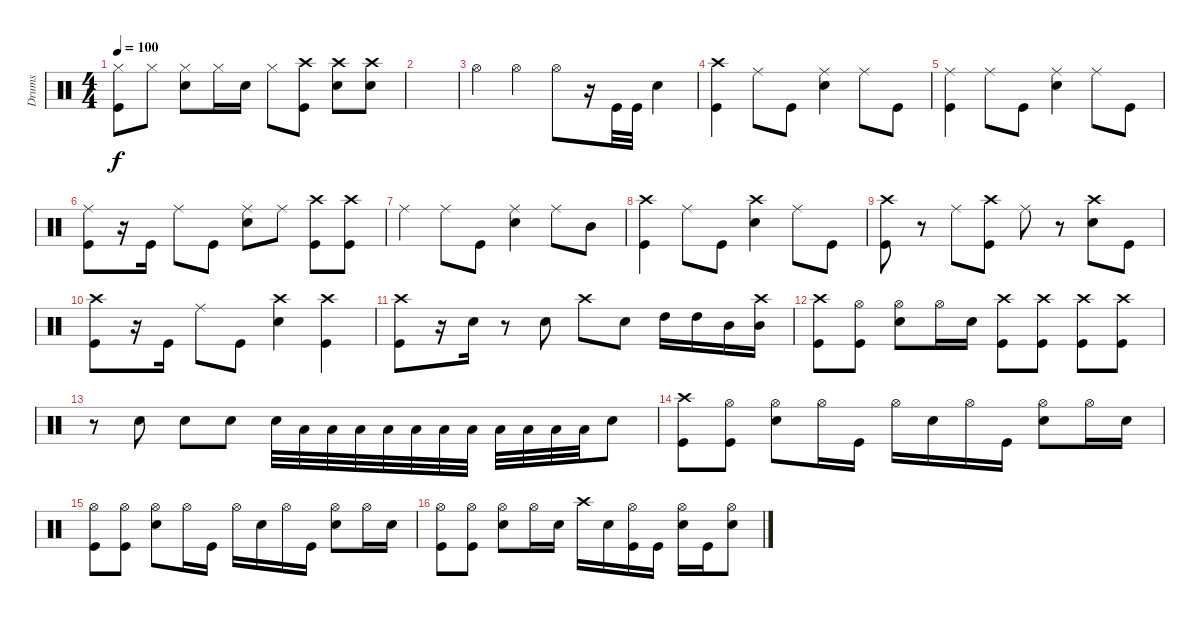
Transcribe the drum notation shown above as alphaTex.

\track ("Drums" "Drums") {instrument percussion}
\staff {score}
\articulation defaults
\ts (4 4)
\tempo 100
\clef neutral
\ks c
("Hi-Hat (closed)" "Kick (hit)").8{dy f} "Hi-Hat (closed)".8 ("Hi-Hat (closed)" "Snare (hit) 2").8 "Hi-Hat (closed)".16 "Snare (hit) 2".16 "Hi-Hat (closed)".8 ("Crash high (hit)" "Kick (hit)").8 ("Crash high (hit)" "Snare (hit) 2").8 ("Crash high (hit)" "Snare (hit) 2").8 |
|
"Hi-Hat (open)".4 "Hi-Hat (open)".4 "Hi-Hat (open)".8 r.16 "Kick (hit)".32 "Kick (hit)".32 "Snare (hit) 2".4 |
("Crash high (hit)" "Kick (hit)").4 "Ride (middle)".8 "Kick (hit)".8 ("Ride (middle)" "Snare (hit) 2").4 "Ride (middle)".8 "Kick (hit)".8 |
("Ride (middle)" "Kick (hit)").4 "Ride (middle)".8 "Kick (hit)".8 ("Ride (middle)" "Snare (hit) 2").4 "Ride (middle)".8 "Kick (hit)".8 |
("Ride (middle)" "Kick (hit)").8 r.16 "Kick (hit)".16 "Ride (middle)".8 "Kick (hit)".8 ("Ride (middle)" "Snare (hit) 2").8 "Ride (middle)".8 ("Crash high (hit)" "Kick (hit)").8 ("Crash high (hit)" "Kick (hit)").8 |
"Ride (middle)".4 "Ride (middle)".8 "Kick (hit)".8 ("Ride (middle)" "Snare (hit) 2").4 "Ride (middle)".8 "Mid Tom (hit)".8 |
("Crash high (hit)" "Kick (hit)").4 "Ride (middle)".8 "Kick (hit)".8 ("Crash high (hit)" "Snare (hit) 2").4 "Ride (middle)".8 "Kick (hit)".8 |
("Crash high (hit)" "Kick (hit)").8 r.8 "Ride (middle)".8 ("Crash high (hit)" "Kick (hit)").8 "Ride (middle)".8 r.8 ("Crash high (hit)" "Snare (hit) 2").8 "Kick (hit)".8 |
("Crash high (hit)" "Kick (hit)").8 r.16 "Kick (hit)".16 "Ride (middle)".8 "Kick (hit)".8 ("Crash high (hit)" "Snare (hit) 2").4 ("Crash high (hit)" "Kick (hit)").4 |
("Crash high (hit)" "Kick (hit)").8 r.16 "Snare (hit) 2".16 r.8 "Snare (hit) 2".8 "Crash high (hit)".8 "Snare (hit) 2".8 "High Tom (hit)".16 "High Tom (hit)".16 "Mid Tom (hit)".16 ("Crash high (hit)" "Mid Tom (hit)").16 |
("Crash high (hit)" "Kick (hit)").8 ("Hi-Hat (open)" "Kick (hit)").8 ("Hi-Hat (open)" "Snare (hit) 2").8 "Hi-Hat (open)".16 "Snare (hit) 2".16 ("Crash high (hit)" "Kick (hit)").8 ("Crash high (hit)" "Kick (hit)").8 ("Crash high (hit)" "Kick (hit)").8 ("Crash high (hit)" "Kick (hit)").8 |
r.8 "Snare (hit) 2".8 "Snare (hit) 2".8 "Snare (hit) 2".8 "Snare (hit) 2".32 "Low Floor Tom (hit)".32 "Low Floor Tom (hit)".32 "Low Floor Tom (hit)".32 "Low Floor Tom (hit)".32 "Low Floor Tom (hit)".32 "Low Floor Tom (hit)".32 "Low Floor Tom (hit)".32 "Low Floor Tom (hit)".32 "Low Floor Tom (hit)".32 "Low Floor Tom (hit)".32 "Low Floor Tom (hit)".32 "Snare (hit) 2".8 |
("Crash high (hit)" "Kick (hit)").8 ("Hi-Hat (open)" "Kick (hit)").8 ("Hi-Hat (open)" "Snare (hit) 2").8 "Hi-Hat (open)".16 "Kick (hit)".16 "Hi-Hat (open)".16 "Snare (hit) 2".16 "Hi-Hat (open)".16 "Kick (hit)".16 ("Hi-Hat (open)" "Snare (hit) 2").8 "Hi-Hat (open)".16 "Snare (hit) 2".16 |
("Hi-Hat (open)" "Kick (hit)").8 ("Hi-Hat (open)" "Kick (hit)").8 ("Hi-Hat (open)" "Snare (hit) 2").8 "Hi-Hat (open)".16 "Kick (hit)".16 "Hi-Hat (open)".16 "Snare (hit) 2".16 "Hi-Hat (open)".16 "Kick (hit)".16 ("Hi-Hat (open)" "Snare (hit) 2").8 "Hi-Hat (open)".16 "Snare (hit) 2".16 |
("Hi-Hat (open)" "Kick (hit)").8 ("Hi-Hat (open)" "Kick (hit)").8 ("Hi-Hat (open)" "Snare (hit) 2").8 "Hi-Hat (open)".16 "Snare (hit) 2".16 "Crash high (hit)".16 "Snare (hit) 2".16 ("Hi-Hat (open)" "Kick (hit)").16 "Kick (hit)".16 ("Hi-Hat (open)" "Snare (hit) 2").16 "Kick (hit)".16 ("Hi-Hat (open)" "Snare (hit) 2").8
